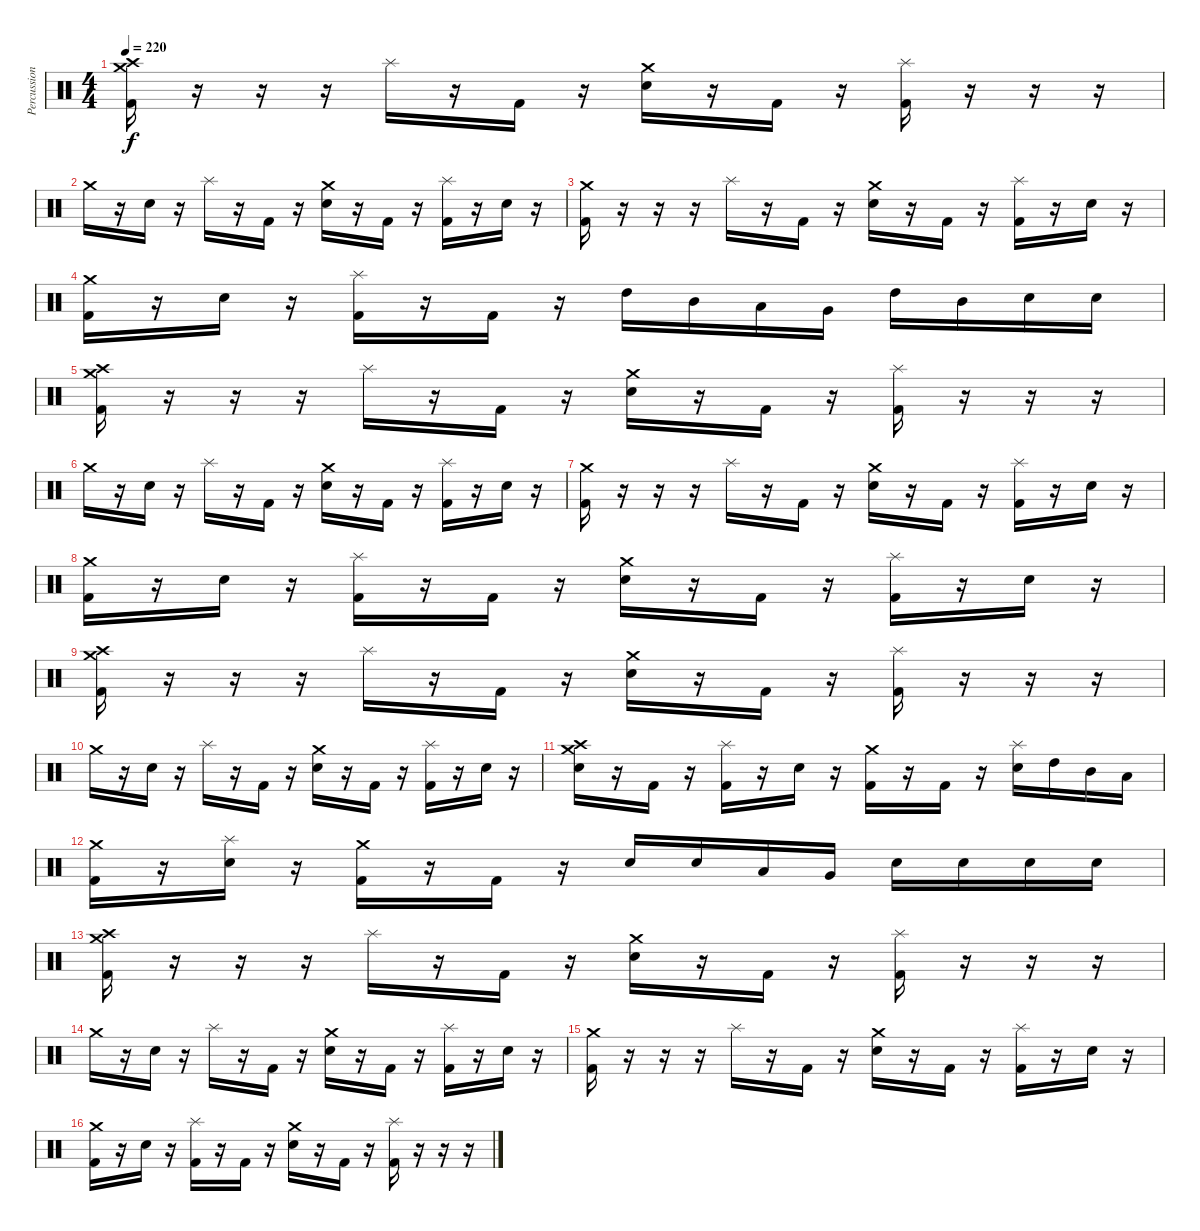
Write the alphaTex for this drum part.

\track ("Percussion" "Percussion") {instrument percussion}
\staff {score}
\articulation defaults
\ts (4 4)
\tempo 220
\clef neutral
\ks c
("Crash high (hit)" "Crash medium (hit)" "Kick (hit) 2").16{dy f} r.16 r.16 r.16 "Splash (hit)".16 r.16 "Kick (hit) 2".16 r.16 ("Crash medium (hit)" "Electric Snare (hit)").16 r.16 "Kick (hit) 2".16 r.16 ("Splash (hit)" "Kick (hit) 2").16 r.16 r.16 r.16 |
"Crash medium (hit)".16 r.16 "Electric Snare (hit)".16 r.16 "Splash (hit)".16 r.16 "Kick (hit) 2".16 r.16 ("Crash medium (hit)" "Electric Snare (hit)").16 r.16 "Kick (hit) 2".16 r.16 ("Splash (hit)" "Kick (hit) 2").16 r.16 "Electric Snare (hit)".16 r.16 |
("Crash medium (hit)" "Kick (hit) 2").16 r.16 r.16 r.16 "Splash (hit)".16 r.16 "Kick (hit) 2".16 r.16 ("Crash medium (hit)" "Electric Snare (hit)").16 r.16 "Kick (hit) 2".16 r.16 ("Splash (hit)" "Kick (hit) 2").16 r.16 "Electric Snare (hit)".16 r.16 |
("Crash medium (hit)" "Kick (hit) 2").16 r.16 "Electric Snare (hit)".16 r.16 ("Splash (hit)" "Kick (hit) 2").16 r.16 "Kick (hit) 2".16 r.16 "High Tom (hit)".16 "Mid Tom (hit)".16 "Low Tom (hit)".16 "Very Low Tom (hit)".16 "High Tom (hit)".16 "Mid Tom (hit)".16 "Electric Snare (hit)".16 "Electric Snare (hit)".16 |
("Crash high (hit)" "Crash medium (hit)" "Kick (hit) 2").16 r.16 r.16 r.16 "Splash (hit)".16 r.16 "Kick (hit) 2".16 r.16 ("Crash medium (hit)" "Electric Snare (hit)").16 r.16 "Kick (hit) 2".16 r.16 ("Splash (hit)" "Kick (hit) 2").16 r.16 r.16 r.16 |
"Crash medium (hit)".16 r.16 "Electric Snare (hit)".16 r.16 "Splash (hit)".16 r.16 "Kick (hit) 2".16 r.16 ("Crash medium (hit)" "Electric Snare (hit)").16 r.16 "Kick (hit) 2".16 r.16 ("Splash (hit)" "Kick (hit) 2").16 r.16 "Electric Snare (hit)".16 r.16 |
("Crash medium (hit)" "Kick (hit) 2").16 r.16 r.16 r.16 "Splash (hit)".16 r.16 "Kick (hit) 2".16 r.16 ("Crash medium (hit)" "Electric Snare (hit)").16 r.16 "Kick (hit) 2".16 r.16 ("Splash (hit)" "Kick (hit) 2").16 r.16 "Electric Snare (hit)".16 r.16 |
("Crash medium (hit)" "Kick (hit) 2").16 r.16 "Electric Snare (hit)".16 r.16 ("Splash (hit)" "Kick (hit) 2").16 r.16 "Kick (hit) 2".16 r.16 ("Crash medium (hit)" "Electric Snare (hit)").16 r.16 "Kick (hit) 2".16 r.16 ("Splash (hit)" "Kick (hit) 2").16 r.16 "Electric Snare (hit)".16 r.16 |
("Crash high (hit)" "Crash medium (hit)" "Kick (hit) 2").16 r.16 r.16 r.16 "Splash (hit)".16 r.16 "Kick (hit) 2".16 r.16 ("Crash medium (hit)" "Electric Snare (hit)").16 r.16 "Kick (hit) 2".16 r.16 ("Splash (hit)" "Kick (hit) 2").16 r.16 r.16 r.16 |
"Crash medium (hit)".16 r.16 "Electric Snare (hit)".16 r.16 "Splash (hit)".16 r.16 "Kick (hit) 2".16 r.16 ("Crash medium (hit)" "Electric Snare (hit)").16 r.16 "Kick (hit) 2".16 r.16 ("Splash (hit)" "Kick (hit) 2").16 r.16 "Electric Snare (hit)".16 r.16 |
("Crash medium (hit)" "Crash high (hit)" "Electric Snare (hit)").16 r.16 "Kick (hit) 2".16 r.16 ("Splash (hit)" "Kick (hit) 2").16 r.16 "Electric Snare (hit)".16 r.16 ("Crash medium (hit)" "Kick (hit) 2").16 r.16 "Kick (hit) 2".16 r.16 ("Splash (hit)" "Electric Snare (hit)").16 "High Tom (hit)".16 "Mid Tom (hit)".16 "Low Tom (hit)".16 |
("Crash medium (hit)" "Kick (hit) 2").16 r.16 ("Splash (hit)" "Electric Snare (hit)").16 r.16 ("Crash medium (hit)" "Kick (hit) 2").16 r.16 "Kick (hit) 2".16 r.16 "Electric Snare (hit)".16 "Electric Snare (hit)".16 "Low Tom (hit)".16 "Very Low Tom (hit)".16 "Electric Snare (hit)".16 "Electric Snare (hit)".16 "Electric Snare (hit)".16 "Electric Snare (hit)".16 |
("Crash high (hit)" "Crash medium (hit)" "Kick (hit) 2").16 r.16 r.16 r.16 "Splash (hit)".16 r.16 "Kick (hit) 2".16 r.16 ("Crash medium (hit)" "Electric Snare (hit)").16 r.16 "Kick (hit) 2".16 r.16 ("Splash (hit)" "Kick (hit) 2").16 r.16 r.16 r.16 |
"Crash medium (hit)".16 r.16 "Electric Snare (hit)".16 r.16 "Splash (hit)".16 r.16 "Kick (hit) 2".16 r.16 ("Crash medium (hit)" "Electric Snare (hit)").16 r.16 "Kick (hit) 2".16 r.16 ("Splash (hit)" "Kick (hit) 2").16 r.16 "Electric Snare (hit)".16 r.16 |
("Crash medium (hit)" "Kick (hit) 2").16 r.16 r.16 r.16 "Splash (hit)".16 r.16 "Kick (hit) 2".16 r.16 ("Crash medium (hit)" "Electric Snare (hit)").16 r.16 "Kick (hit) 2".16 r.16 ("Splash (hit)" "Kick (hit) 2").16 r.16 "Electric Snare (hit)".16 r.16 |
("Crash medium (hit)" "Kick (hit) 2").16 r.16 "Electric Snare (hit)".16 r.16 ("Splash (hit)" "Kick (hit) 2").16 r.16 "Kick (hit) 2".16 r.16 ("Crash medium (hit)" "Electric Snare (hit)").16 r.16 "Kick (hit) 2".16 r.16 ("Splash (hit)" "Kick (hit) 2").16 r.16 r.16 r.16
